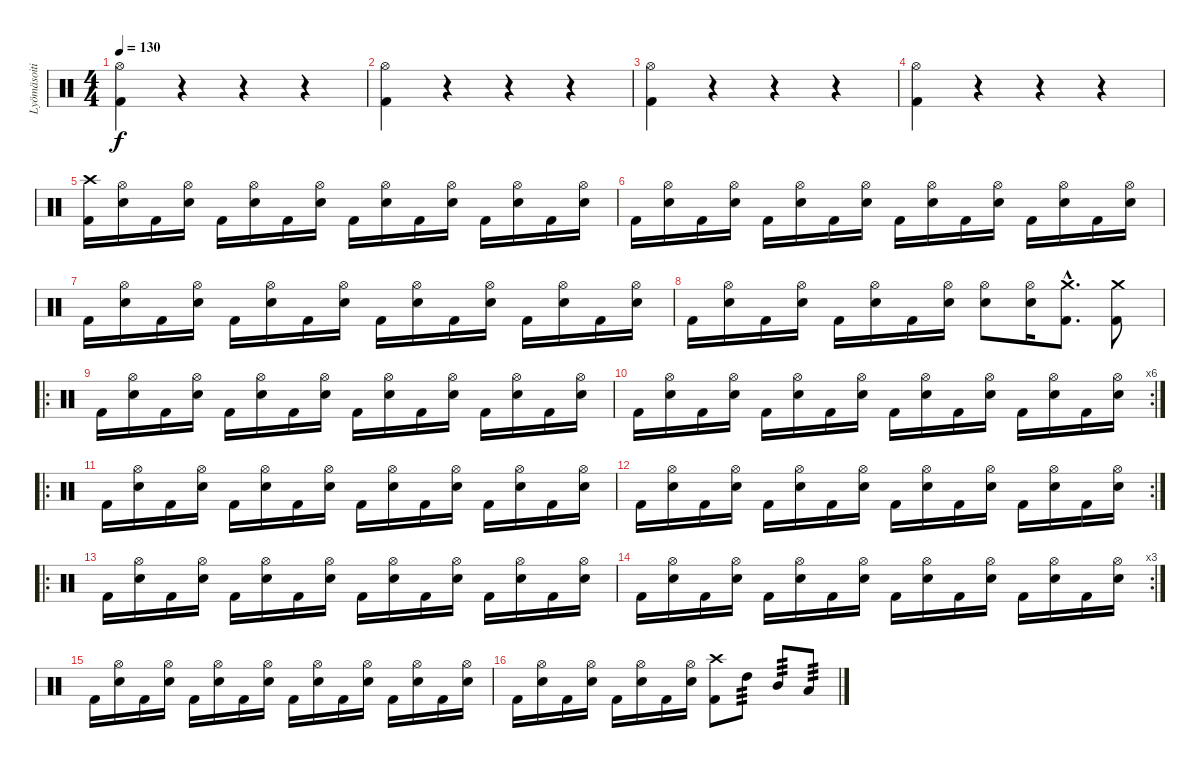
\track ("Lyömäsoitin" "Lyömäsoiti") {instrument percussion}
\staff {score}
\articulation defaults
\ts (4 4)
\tempo 130
\clef neutral
\ks c
("Hi-Hat (open)" "Kick (hit) 2").4{dy f} r.4 r.4 r.4 |
("Kick (hit) 2" "Hi-Hat (open)").4 r.4 r.4 r.4 |
("Hi-Hat (open)" "Kick (hit) 2").4 r.4 r.4 r.4 |
("Kick (hit) 2" "Hi-Hat (open)").4 r.4 r.4 r.4 |
("Crash high (hit)" "Kick (hit) 2").16 ("Hi-Hat (open)" "Snare (hit) 2").16 "Kick (hit) 2".16 ("Hi-Hat (open)" "Snare (hit) 2").16 "Kick (hit) 2".16 ("Hi-Hat (open)" "Snare (hit) 2").16 "Kick (hit) 2".16 ("Hi-Hat (open)" "Snare (hit) 2").16 "Kick (hit) 2".16 ("Hi-Hat (open)" "Snare (hit) 2").16 "Kick (hit) 2".16 ("Hi-Hat (open)" "Snare (hit) 2").16 "Kick (hit) 2".16 ("Hi-Hat (open)" "Snare (hit) 2").16 "Kick (hit) 2".16 ("Hi-Hat (open)" "Snare (hit) 2").16 |
"Kick (hit) 2".16 ("Hi-Hat (open)" "Snare (hit) 2").16 "Kick (hit) 2".16 ("Hi-Hat (open)" "Snare (hit) 2").16 "Kick (hit) 2".16 ("Hi-Hat (open)" "Snare (hit) 2").16 "Kick (hit) 2".16 ("Hi-Hat (open)" "Snare (hit) 2").16 "Kick (hit) 2".16 ("Hi-Hat (open)" "Snare (hit) 2").16 "Kick (hit) 2".16 ("Hi-Hat (open)" "Snare (hit) 2").16 "Kick (hit) 2".16 ("Hi-Hat (open)" "Snare (hit) 2").16 "Kick (hit) 2".16 ("Hi-Hat (open)" "Snare (hit) 2").16 |
"Kick (hit) 2".16 ("Hi-Hat (open)" "Snare (hit) 2").16 "Kick (hit) 2".16 ("Hi-Hat (open)" "Snare (hit) 2").16 "Kick (hit) 2".16 ("Hi-Hat (open)" "Snare (hit) 2").16 "Kick (hit) 2".16 ("Hi-Hat (open)" "Snare (hit) 2").16 "Kick (hit) 2".16 ("Hi-Hat (open)" "Snare (hit) 2").16 "Kick (hit) 2".16 ("Hi-Hat (open)" "Snare (hit) 2").16 "Kick (hit) 2".16 ("Hi-Hat (open)" "Snare (hit) 2").16 "Kick (hit) 2".16 ("Hi-Hat (open)" "Snare (hit) 2").16 |
"Kick (hit) 2".16 ("Hi-Hat (open)" "Snare (hit) 2").16 "Kick (hit) 2".16 ("Hi-Hat (open)" "Snare (hit) 2").16 "Kick (hit) 2".16 ("Hi-Hat (open)" "Snare (hit) 2").16 "Kick (hit) 2".16 ("Hi-Hat (open)" "Snare (hit) 2").16 ("Hi-Hat (open)" "Snare (hit) 2").8 ("Hi-Hat (open)" "Snare (hit) 2").16 ("Crash medium (hit)"{hac} "Kick (hit) 2"{hac}).8{d} ("Crash medium (hit)" "Kick (hit) 2").8 |
\ro "Kick (hit) 2".16
("Hi-Hat (open)" "Snare (hit) 2").16 "Kick (hit) 2".16 ("Hi-Hat (open)" "Snare (hit) 2").16 "Kick (hit) 2".16 ("Hi-Hat (open)" "Snare (hit) 2").16 "Kick (hit) 2".16 ("Hi-Hat (open)" "Snare (hit) 2").16 "Kick (hit) 2".16 ("Hi-Hat (open)" "Snare (hit) 2").16 "Kick (hit) 2".16 ("Hi-Hat (open)" "Snare (hit) 2").16 "Kick (hit) 2".16 ("Hi-Hat (open)" "Snare (hit) 2").16 "Kick (hit) 2".16 ("Hi-Hat (open)" "Snare (hit) 2").16 |
\rc 6 "Kick (hit) 2".16
("Hi-Hat (open)" "Snare (hit) 2").16 "Kick (hit) 2".16 ("Hi-Hat (open)" "Snare (hit) 2").16 "Kick (hit) 2".16 ("Hi-Hat (open)" "Snare (hit) 2").16 "Kick (hit) 2".16 ("Hi-Hat (open)" "Snare (hit) 2").16 "Kick (hit) 2".16 ("Hi-Hat (open)" "Snare (hit) 2").16 "Kick (hit) 2".16 ("Hi-Hat (open)" "Snare (hit) 2").16 "Kick (hit) 2".16 ("Hi-Hat (open)" "Snare (hit) 2").16 "Kick (hit) 2".16 ("Hi-Hat (open)" "Snare (hit) 2").16 |
\ro "Kick (hit) 2".16
("Hi-Hat (open)" "Snare (hit) 2").16 "Kick (hit) 2".16 ("Hi-Hat (open)" "Snare (hit) 2").16 "Kick (hit) 2".16 ("Hi-Hat (open)" "Snare (hit) 2").16 "Kick (hit) 2".16 ("Hi-Hat (open)" "Snare (hit) 2").16 "Kick (hit) 2".16 ("Hi-Hat (open)" "Snare (hit) 2").16 "Kick (hit) 2".16 ("Hi-Hat (open)" "Snare (hit) 2").16 "Kick (hit) 2".16 ("Hi-Hat (open)" "Snare (hit) 2").16 "Kick (hit) 2".16 ("Hi-Hat (open)" "Snare (hit) 2").16 |
\rc 2 "Kick (hit) 2".16
("Hi-Hat (open)" "Snare (hit) 2").16 "Kick (hit) 2".16 ("Hi-Hat (open)" "Snare (hit) 2").16 "Kick (hit) 2".16 ("Hi-Hat (open)" "Snare (hit) 2").16 "Kick (hit) 2".16 ("Hi-Hat (open)" "Snare (hit) 2").16 "Kick (hit) 2".16 ("Hi-Hat (open)" "Snare (hit) 2").16 "Kick (hit) 2".16 ("Hi-Hat (open)" "Snare (hit) 2").16 "Kick (hit) 2".16 ("Hi-Hat (open)" "Snare (hit) 2").16 "Kick (hit) 2".16 ("Hi-Hat (open)" "Snare (hit) 2").16 |
\ro "Kick (hit) 2".16
("Hi-Hat (open)" "Snare (hit) 2").16 "Kick (hit) 2".16 ("Hi-Hat (open)" "Snare (hit) 2").16 "Kick (hit) 2".16 ("Hi-Hat (open)" "Snare (hit) 2").16 "Kick (hit) 2".16 ("Hi-Hat (open)" "Snare (hit) 2").16 "Kick (hit) 2".16 ("Hi-Hat (open)" "Snare (hit) 2").16 "Kick (hit) 2".16 ("Hi-Hat (open)" "Snare (hit) 2").16 "Kick (hit) 2".16 ("Hi-Hat (open)" "Snare (hit) 2").16 "Kick (hit) 2".16 ("Hi-Hat (open)" "Snare (hit) 2").16 |
\rc 3 "Kick (hit) 2".16
("Hi-Hat (open)" "Snare (hit) 2").16 "Kick (hit) 2".16 ("Hi-Hat (open)" "Snare (hit) 2").16 "Kick (hit) 2".16 ("Hi-Hat (open)" "Snare (hit) 2").16 "Kick (hit) 2".16 ("Hi-Hat (open)" "Snare (hit) 2").16 "Kick (hit) 2".16 ("Hi-Hat (open)" "Snare (hit) 2").16 "Kick (hit) 2".16 ("Hi-Hat (open)" "Snare (hit) 2").16 "Kick (hit) 2".16 ("Hi-Hat (open)" "Snare (hit) 2").16 "Kick (hit) 2".16 ("Hi-Hat (open)" "Snare (hit) 2").16 |
"Kick (hit) 2".16 ("Hi-Hat (open)" "Snare (hit) 2").16 "Kick (hit) 2".16 ("Hi-Hat (open)" "Snare (hit) 2").16 "Kick (hit) 2".16 ("Hi-Hat (open)" "Snare (hit) 2").16 "Kick (hit) 2".16 ("Hi-Hat (open)" "Snare (hit) 2").16 "Kick (hit) 2".16 ("Hi-Hat (open)" "Snare (hit) 2").16 "Kick (hit) 2".16 ("Hi-Hat (open)" "Snare (hit) 2").16 "Kick (hit) 2".16 ("Hi-Hat (open)" "Snare (hit) 2").16 "Kick (hit) 2".16 ("Hi-Hat (open)" "Snare (hit) 2").16 |
"Kick (hit) 2".16 ("Hi-Hat (open)" "Snare (hit) 2").16 "Kick (hit) 2".16 ("Hi-Hat (open)" "Snare (hit) 2").16 "Kick (hit) 2".16 ("Hi-Hat (open)" "Snare (hit) 2").16 "Kick (hit) 2".16 ("Hi-Hat (open)" "Snare (hit) 2").16 ("Crash high (hit)" "Kick (hit) 2").8 "High Tom (hit)".8{tp 3} "Mid Tom (hit)".8{tp 3} "Low Tom (hit)".8{tp 3}
